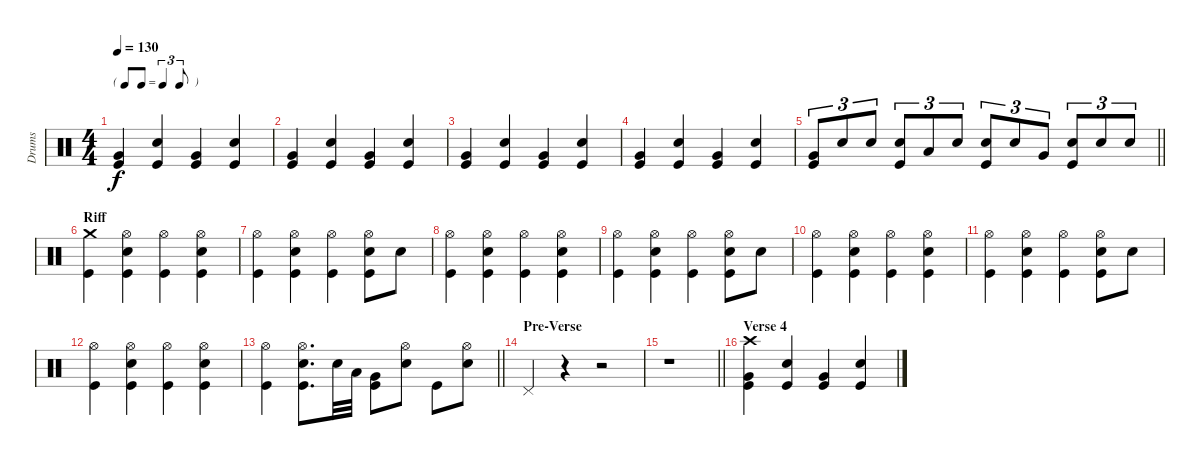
\track ("Drums" "Drums") {instrument percussion}
\staff {score}
\articulation defaults
\ts (4 4)
\tf triplet8th
\tempo 130
\clef neutral
\ks c
("Kick (hit)" "Very Low Tom (hit)").4{dy f} ("Snare (hit) 2" "Kick (hit)").4 ("Kick (hit)" "Very Low Tom (hit)").4 ("Snare (hit) 2" "Kick (hit)").4 |
("Kick (hit)" "Very Low Tom (hit)").4 ("Snare (hit) 2" "Kick (hit)").4 ("Kick (hit)" "Very Low Tom (hit)").4 ("Snare (hit) 2" "Kick (hit)").4 |
("Kick (hit)" "Very Low Tom (hit)").4 ("Snare (hit) 2" "Kick (hit)").4 ("Kick (hit)" "Very Low Tom (hit)").4 ("Snare (hit) 2" "Kick (hit)").4 |
("Kick (hit)" "Very Low Tom (hit)").4 ("Snare (hit) 2" "Kick (hit)").4 ("Kick (hit)" "Very Low Tom (hit)").4 ("Snare (hit) 2" "Kick (hit)").4 |
\barLineRight lightlight
("Kick (hit)" "Very Low Tom (hit)").8{tu (3 2)} "Snare (hit) 2".8{tu (3 2)} "Snare (hit) 2".8{tu (3 2)} ("Snare (hit) 2" "Kick (hit)").8{tu (3 2)} "Low Tom (hit)".8{tu (3 2)} "Snare (hit) 2".8{tu (3 2)} ("Snare (hit) 2" "Kick (hit)").8{tu (3 2)} "Snare (hit) 2".8{tu (3 2)} "Very Low Tom (hit)".8{tu (3 2)} ("Snare (hit) 2" "Kick (hit)").8{tu (3 2)} "Snare (hit) 2".8{tu (3 2)} "Snare (hit) 2".8{tu (3 2)} |
\section ("" "Riff")
("Crash medium (hit)" "Kick (hit)").4 ("Hi-Hat (open)" "Snare (hit) 2" "Kick (hit)").4 ("Hi-Hat (open)" "Kick (hit)").4 ("Hi-Hat (open)" "Snare (hit) 2" "Kick (hit)").4 |
("Hi-Hat (open)" "Kick (hit)").4 ("Hi-Hat (open)" "Snare (hit) 2" "Kick (hit)").4 ("Hi-Hat (open)" "Kick (hit)").4 ("Hi-Hat (open)" "Snare (hit) 2" "Kick (hit)").8 "Snare (hit) 2".8 |
("Hi-Hat (open)" "Kick (hit)").4 ("Hi-Hat (open)" "Snare (hit) 2" "Kick (hit)").4 ("Hi-Hat (open)" "Kick (hit)").4 ("Hi-Hat (open)" "Snare (hit) 2" "Kick (hit)").4 |
("Hi-Hat (open)" "Kick (hit)").4 ("Hi-Hat (open)" "Snare (hit) 2" "Kick (hit)").4 ("Hi-Hat (open)" "Kick (hit)").4 ("Hi-Hat (open)" "Snare (hit) 2" "Kick (hit)").8 "Snare (hit) 2".8 |
("Hi-Hat (open)" "Kick (hit)").4 ("Hi-Hat (open)" "Snare (hit) 2" "Kick (hit)").4 ("Hi-Hat (open)" "Kick (hit)").4 ("Hi-Hat (open)" "Snare (hit) 2" "Kick (hit)").4 |
("Hi-Hat (open)" "Kick (hit)").4 ("Hi-Hat (open)" "Snare (hit) 2" "Kick (hit)").4 ("Hi-Hat (open)" "Kick (hit)").4 ("Hi-Hat (open)" "Snare (hit) 2" "Kick (hit)").8 "Snare (hit) 2".8 |
("Hi-Hat (open)" "Kick (hit)").4 ("Hi-Hat (open)" "Snare (hit) 2" "Kick (hit)").4 ("Hi-Hat (open)" "Kick (hit)").4 ("Hi-Hat (open)" "Snare (hit) 2" "Kick (hit)").4 |
\barLineRight lightlight
("Hi-Hat (open)" "Kick (hit)").4 ("Hi-Hat (open)" "Snare (hit) 2" "Kick (hit)").8{d} "Snare (hit) 2".32 "Low Tom (hit)".32 ("Very Low Tom (hit)" "Kick (hit)").8 ("Hi-Hat (open)" "Snare (hit) 2").8 "Kick (hit)".8 ("Snare (hit) 2" "Hi-Hat (open)").8 |
\section ("" "Pre-Verse")
"Pedal Hi-Hat (hit)".4 r.4 r.2 |
\barLineRight lightlight
r.1 |
\section ("" "Verse 4")
("Kick (hit)" "Crash high (hit)" "Very Low Tom (hit)").4 ("Snare (hit) 2" "Kick (hit)").4 ("Kick (hit)" "Very Low Tom (hit)").4 ("Snare (hit) 2" "Kick (hit)").4
